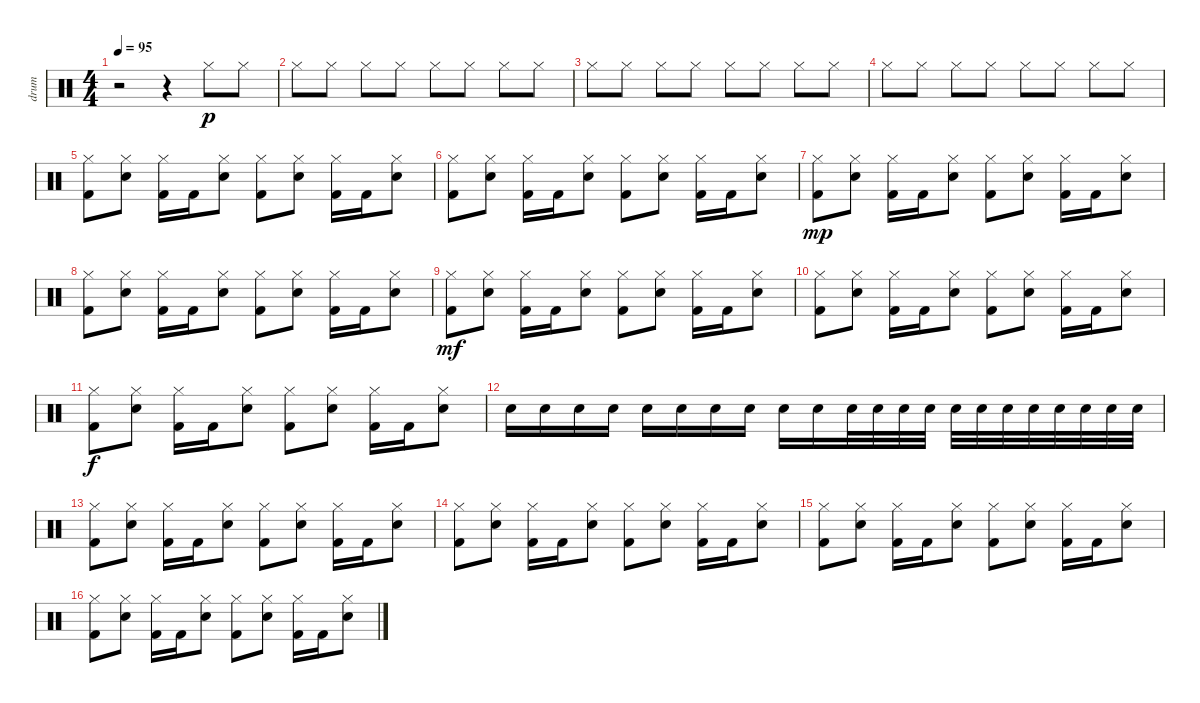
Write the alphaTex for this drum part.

\track ("drum" "drum") {instrument percussion}
\staff {score}
\articulation defaults
\ts (4 4)
\tempo 95
\clef neutral
\ks c
r.2{dy p} r.4 "Hi-Hat (closed)".8 "Hi-Hat (closed)".8 |
"Hi-Hat (closed)".8 "Hi-Hat (closed)".8 "Hi-Hat (closed)".8 "Hi-Hat (closed)".8 "Hi-Hat (closed)".8 "Hi-Hat (closed)".8 "Hi-Hat (closed)".8 "Hi-Hat (closed)".8 |
"Hi-Hat (closed)".8 "Hi-Hat (closed)".8 "Hi-Hat (closed)".8 "Hi-Hat (closed)".8 "Hi-Hat (closed)".8 "Hi-Hat (closed)".8 "Hi-Hat (closed)".8 "Hi-Hat (closed)".8 |
"Hi-Hat (closed)".8 "Hi-Hat (closed)".8 "Hi-Hat (closed)".8 "Hi-Hat (closed)".8 "Hi-Hat (closed)".8 "Hi-Hat (closed)".8 "Hi-Hat (closed)".8 "Hi-Hat (closed)".8 |
("Hi-Hat (closed)" "Kick (hit) 2").8 ("Hi-Hat (closed)" "Snare (hit) 2").8 ("Hi-Hat (closed)" "Kick (hit) 2").16 "Kick (hit) 2".16 ("Hi-Hat (closed)" "Snare (hit) 2").8 ("Hi-Hat (closed)" "Kick (hit) 2").8 ("Hi-Hat (closed)" "Snare (hit) 2").8 ("Hi-Hat (closed)" "Kick (hit) 2").16 "Kick (hit) 2".16 ("Hi-Hat (closed)" "Snare (hit) 2").8 |
("Hi-Hat (closed)" "Kick (hit) 2").8 ("Hi-Hat (closed)" "Snare (hit) 2").8 ("Hi-Hat (closed)" "Kick (hit) 2").16 "Kick (hit) 2".16 ("Hi-Hat (closed)" "Snare (hit) 2").8 ("Hi-Hat (closed)" "Kick (hit) 2").8 ("Hi-Hat (closed)" "Snare (hit) 2").8 ("Hi-Hat (closed)" "Kick (hit) 2").16 "Kick (hit) 2".16 ("Hi-Hat (closed)" "Snare (hit) 2").8 |
("Hi-Hat (closed)" "Kick (hit) 2").8{dy mp} ("Hi-Hat (closed)" "Snare (hit) 2").8 ("Hi-Hat (closed)" "Kick (hit) 2").16 "Kick (hit) 2".16 ("Hi-Hat (closed)" "Snare (hit) 2").8 ("Hi-Hat (closed)" "Kick (hit) 2").8 ("Hi-Hat (closed)" "Snare (hit) 2").8 ("Hi-Hat (closed)" "Kick (hit) 2").16 "Kick (hit) 2".16 ("Hi-Hat (closed)" "Snare (hit) 2").8 |
("Hi-Hat (closed)" "Kick (hit) 2").8 ("Hi-Hat (closed)" "Snare (hit) 2").8 ("Hi-Hat (closed)" "Kick (hit) 2").16 "Kick (hit) 2".16 ("Hi-Hat (closed)" "Snare (hit) 2").8 ("Hi-Hat (closed)" "Kick (hit) 2").8 ("Hi-Hat (closed)" "Snare (hit) 2").8 ("Hi-Hat (closed)" "Kick (hit) 2").16 "Kick (hit) 2".16 ("Hi-Hat (closed)" "Snare (hit) 2").8 |
("Hi-Hat (closed)" "Kick (hit) 2").8{dy mf} ("Hi-Hat (closed)" "Snare (hit) 2").8 ("Hi-Hat (closed)" "Kick (hit) 2").16 "Kick (hit) 2".16 ("Hi-Hat (closed)" "Snare (hit) 2").8 ("Hi-Hat (closed)" "Kick (hit) 2").8 ("Hi-Hat (closed)" "Snare (hit) 2").8 ("Hi-Hat (closed)" "Kick (hit) 2").16 "Kick (hit) 2".16 ("Hi-Hat (closed)" "Snare (hit) 2").8 |
("Hi-Hat (closed)" "Kick (hit) 2").8 ("Hi-Hat (closed)" "Snare (hit) 2").8 ("Hi-Hat (closed)" "Kick (hit) 2").16 "Kick (hit) 2".16 ("Hi-Hat (closed)" "Snare (hit) 2").8 ("Hi-Hat (closed)" "Kick (hit) 2").8 ("Hi-Hat (closed)" "Snare (hit) 2").8 ("Hi-Hat (closed)" "Kick (hit) 2").16 "Kick (hit) 2".16 ("Hi-Hat (closed)" "Snare (hit) 2").8 |
("Hi-Hat (closed)" "Kick (hit) 2").8{dy f} ("Hi-Hat (closed)" "Snare (hit) 2").8 ("Hi-Hat (closed)" "Kick (hit) 2").16 "Kick (hit) 2".16 ("Hi-Hat (closed)" "Snare (hit) 2").8 ("Hi-Hat (closed)" "Kick (hit) 2").8 ("Hi-Hat (closed)" "Snare (hit) 2").8 ("Hi-Hat (closed)" "Kick (hit) 2").16 "Kick (hit) 2".16 ("Hi-Hat (closed)" "Snare (hit) 2").8 |
"Snare (hit) 2".16 "Snare (hit) 2".16 "Snare (hit) 2".16 "Snare (hit) 2".16 "Snare (hit) 2".16 "Snare (hit) 2".16 "Snare (hit) 2".16 "Snare (hit) 2".16 "Snare (hit) 2".16 "Snare (hit) 2".16 "Snare (hit) 2".32 "Snare (hit) 2".32 "Snare (hit) 2".32 "Snare (hit) 2".32 "Snare (hit) 2".32 "Snare (hit) 2".32 "Snare (hit) 2".32 "Snare (hit) 2".32 "Snare (hit) 2".32 "Snare (hit) 2".32 "Snare (hit) 2".32 "Snare (hit) 2".32 |
("Hi-Hat (closed)" "Kick (hit) 2").8 ("Hi-Hat (closed)" "Snare (hit) 2").8 ("Hi-Hat (closed)" "Kick (hit) 2").16 "Kick (hit) 2".16 ("Hi-Hat (closed)" "Snare (hit) 2").8 ("Hi-Hat (closed)" "Kick (hit) 2").8 ("Hi-Hat (closed)" "Snare (hit) 2").8 ("Hi-Hat (closed)" "Kick (hit) 2").16 "Kick (hit) 2".16 ("Hi-Hat (closed)" "Snare (hit) 2").8 |
("Hi-Hat (closed)" "Kick (hit) 2").8 ("Hi-Hat (closed)" "Snare (hit) 2").8 ("Hi-Hat (closed)" "Kick (hit) 2").16 "Kick (hit) 2".16 ("Hi-Hat (closed)" "Snare (hit) 2").8 ("Hi-Hat (closed)" "Kick (hit) 2").8 ("Hi-Hat (closed)" "Snare (hit) 2").8 ("Hi-Hat (closed)" "Kick (hit) 2").16 "Kick (hit) 2".16 ("Hi-Hat (closed)" "Snare (hit) 2").8 |
("Hi-Hat (closed)" "Kick (hit) 2").8 ("Hi-Hat (closed)" "Snare (hit) 2").8 ("Hi-Hat (closed)" "Kick (hit) 2").16 "Kick (hit) 2".16 ("Hi-Hat (closed)" "Snare (hit) 2").8 ("Hi-Hat (closed)" "Kick (hit) 2").8 ("Hi-Hat (closed)" "Snare (hit) 2").8 ("Hi-Hat (closed)" "Kick (hit) 2").16 "Kick (hit) 2".16 ("Hi-Hat (closed)" "Snare (hit) 2").8 |
("Hi-Hat (closed)" "Kick (hit) 2").8 ("Hi-Hat (closed)" "Snare (hit) 2").8 ("Hi-Hat (closed)" "Kick (hit) 2").16 "Kick (hit) 2".16 ("Hi-Hat (closed)" "Snare (hit) 2").8 ("Hi-Hat (closed)" "Kick (hit) 2").8 ("Hi-Hat (closed)" "Snare (hit) 2").8 ("Hi-Hat (closed)" "Kick (hit) 2").16 "Kick (hit) 2".16 ("Hi-Hat (closed)" "Snare (hit) 2").8
